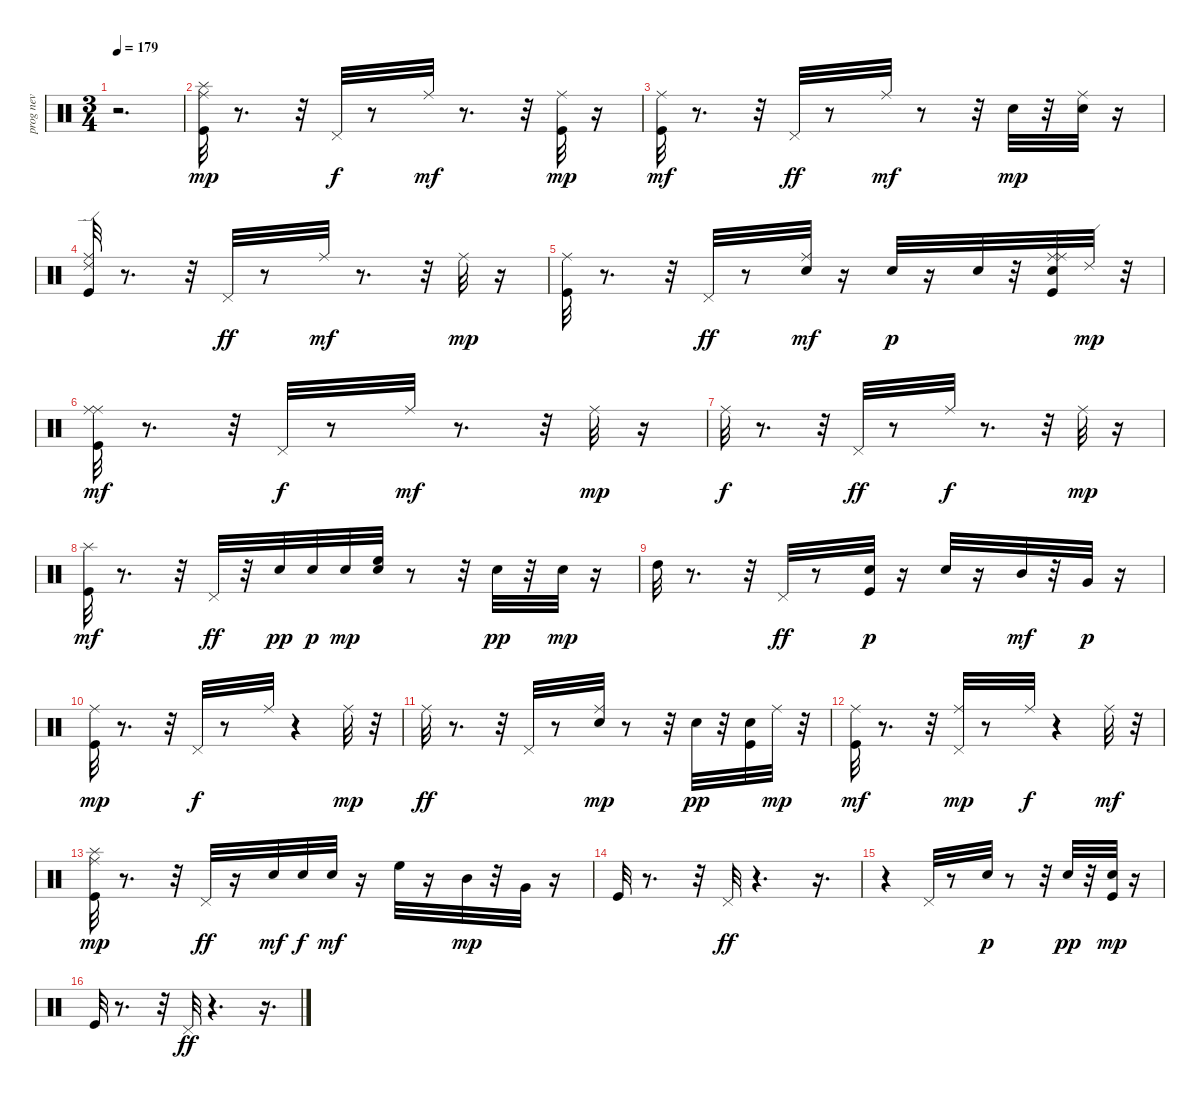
\track ("prog nev" "prog nev") {instrument percussion}
\staff {score}
\articulation defaults
\ts (3 4)
\tempo 179
\clef neutral
\ks c
r.2{d dy mp} |
("Kick (hit)" "Ride (middle)" "Splash (hit)").32 r.8{d} r.32 "Pedal Hi-Hat (hit)".32{dy f} r.8 "Ride (middle)".32{dy mf} r.8{d} r.32 ("Kick (hit)" "Ride (middle)").32{dy mp} r.16 |
("Kick (hit)" "Ride (middle)").32{dy mf} r.8{d} r.32 "Pedal Hi-Hat (hit)".32{dy ff} r.8 "Ride (middle)".32{dy mf} r.8 r.32 "Snare (hit) 2".32{dy mp} r.32 ("Snare (hit) 2" "Ride (middle)").32 r.16 |
("Kick (hit)" "Ride (middle)" "Ride (edge) 2").32 r.8{d} r.32 "Pedal Hi-Hat (hit)".32{dy ff} r.8 "Ride (middle)".32{dy mf} r.8{d} r.32 "Ride (middle)".32{dy mp} r.16 |
("Kick (hit)" "Ride (middle)").32 r.8{d} r.32 "Pedal Hi-Hat (hit)".32{dy ff} r.8 ("Hand Clap (hit)" "Ride (middle)").32{dy mf} r.16 "Snare (hit) 2".32{dy p} r.16 "Snare (hit) 2".32 r.32 ("Ride (middle)" "Kick (hit)" "Snare (hit) 2" "Ride (middle)").32 "Ride (edge) 2".32{dy mp} r.32 |
("Ride (middle)" "Kick (hit)" "Ride (middle)").32{dy mf} r.8{d} r.32 "Pedal Hi-Hat (hit)".32{dy f} r.8 "Ride (middle)".32{dy mf} r.8{d} r.32 "Ride (middle)".32{dy mp} r.16 |
"Ride (middle)".32{dy f} r.8{d} r.32 "Pedal Hi-Hat (hit)".32{dy ff} r.8 "Ride (middle)".32{dy f} r.8{d} r.32 "Ride (middle)".32{dy mp} r.16 |
("Kick (hit)" "Splash (hit)").32{dy mf} r.8{d} r.32 "Pedal Hi-Hat (hit)".32{dy ff} r.32 "Snare (hit) 2".32{dy pp} "Snare (hit) 2".32{dy p} "Snare (hit) 2".32{dy mp} ("Snare (hit) 2" "High Floor Tom (hit)").32 r.8 r.32 "Snare (hit) 2".32{dy pp} r.32 "Snare (hit) 2".32{dy mp} r.16 |
"High Tom (hit)".32 r.8{d} r.32 "Pedal Hi-Hat (hit)".32{dy ff} r.8 ("Kick (hit)" "Hand Clap (hit)").32{dy p} r.16 "Snare (hit) 2".32 r.16 "Mid Tom (hit)".32{dy mf} r.32 "Very Low Tom (hit)".32{dy p} r.16 |
("Kick (hit)" "Ride (middle)").32{dy mp} r.8{d} r.32 "Pedal Hi-Hat (hit)".32{dy f} r.8 "Ride (middle)".32 r.4 "Ride (middle)".32{dy mp} r.32 |
"Ride (middle)".32{dy ff} r.8{d} r.32 "Pedal Hi-Hat (hit)".32 r.8 ("Hand Clap (hit)" "Ride (middle)").32{dy mp} r.8 r.32 "Snare (hit) 2".32{dy pp} r.32 ("Kick (hit)" "Snare (hit) 2").32 "Ride (middle)".32{dy mp} r.32 |
("Kick (hit)" "Ride (middle)").32{dy mf} r.8{d} r.32 ("Pedal Hi-Hat (hit)" "Ride (middle)").32{dy mp} r.8 "Ride (middle)".32{dy f} r.4 "Ride (middle)".32{dy mf} r.32 |
("Kick (hit)" "Ride (middle)" "Splash (hit)").32{dy mp} r.8{d} r.32 "Pedal Hi-Hat (hit)".32{dy ff} r.16 "Snare (hit) 2".32{dy mf} "Snare (hit) 2".32{dy f} "Hand Clap (hit)".32{dy mf} r.16 "High Floor Tom (hit)".32 r.16 "Mid Tom (hit)".32{dy mp} r.32 "Very Low Tom (hit)".32 r.16 |
"Kick (hit)".32 r.8{d} r.32 "Pedal Hi-Hat (hit)".32{dy ff} r.4{d} r.16{d} |
r.4 "Pedal Hi-Hat (hit)".32 r.8 "Hand Clap (hit)".32{dy p} r.8 r.32 "Snare (hit) 2".32{dy pp} r.32 ("Kick (hit)" "Snare (hit) 2").32{dy mp} r.16 |
"Kick (hit)".32 r.8{d} r.32 "Pedal Hi-Hat (hit)".32{dy ff} r.4{d} r.16{d}
